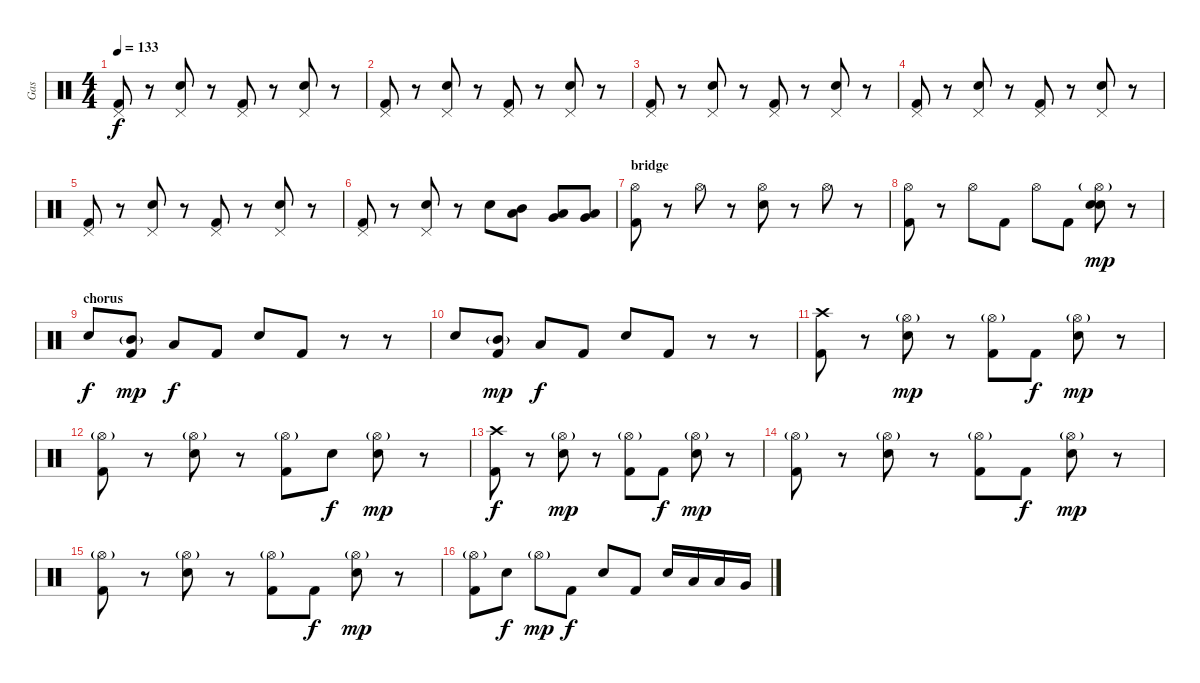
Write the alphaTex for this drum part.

\track ("Gas" "Gas") {instrument percussion}
\staff {score}
\articulation defaults
\ts (4 4)
\tempo 133
\clef neutral
\ks c
("Pedal Hi-Hat (hit)" "Kick (hit) 2").8{dy f} r.8 ("Pedal Hi-Hat (hit)" "Electric Snare (hit)").8 r.8 ("Pedal Hi-Hat (hit)" "Kick (hit) 2").8 r.8 ("Pedal Hi-Hat (hit)" "Electric Snare (hit)").8 r.8 |
("Pedal Hi-Hat (hit)" "Kick (hit) 2").8 r.8 ("Pedal Hi-Hat (hit)" "Electric Snare (hit)").8 r.8 ("Pedal Hi-Hat (hit)" "Kick (hit) 2").8 r.8 ("Pedal Hi-Hat (hit)" "Electric Snare (hit)").8 r.8 |
("Pedal Hi-Hat (hit)" "Kick (hit) 2").8 r.8 ("Pedal Hi-Hat (hit)" "Electric Snare (hit)").8 r.8 ("Pedal Hi-Hat (hit)" "Kick (hit) 2").8 r.8 ("Pedal Hi-Hat (hit)" "Electric Snare (hit)").8 r.8 |
("Pedal Hi-Hat (hit)" "Kick (hit) 2").8 r.8 ("Pedal Hi-Hat (hit)" "Electric Snare (hit)").8 r.8 ("Pedal Hi-Hat (hit)" "Kick (hit) 2").8 r.8 ("Pedal Hi-Hat (hit)" "Electric Snare (hit)").8 r.8 |
("Pedal Hi-Hat (hit)" "Kick (hit) 2").8 r.8 ("Pedal Hi-Hat (hit)" "Electric Snare (hit)").8 r.8 ("Pedal Hi-Hat (hit)" "Kick (hit) 2").8 r.8 ("Pedal Hi-Hat (hit)" "Electric Snare (hit)").8 r.8 |
("Pedal Hi-Hat (hit)" "Kick (hit) 2").8 r.8 ("Pedal Hi-Hat (hit)" "Electric Snare (hit)").8 r.8 "Electric Snare (hit)".8 ("Low Tom (hit)" "Mid Tom (hit)").8 ("Very Low Tom (hit)" "Low Tom (hit)").8 ("Very Low Tom (hit)" "Low Floor Tom (hit)").8 |
\section ("" "bridge")
("Hi-Hat (open)" "Kick (hit) 2").8 r.8 "Hi-Hat (open)".8 r.8 ("Hi-Hat (open)" "Electric Snare (hit)").8 r.8 "Hi-Hat (open)".8 r.8 |
("Hi-Hat (open)" "Kick (hit) 2").8 r.8 "Hi-Hat (open)".8 "Kick (hit) 2".8 "Hi-Hat (open)".8 "Kick (hit) 2".8 ("Hi-Hat (open)"{g} "Electric Snare (hit)" "Electric Snare (hit)").8{dy mp} r.8 |
\section ("" "chorus")
"Electric Snare (hit)".8{dy f} ("Kick (hit) 2" "Mid Tom (hit)"{g}).8{dy mp} "Low Tom (hit)".8{dy f} "Kick (hit) 2".8 "Electric Snare (hit)".8 "Kick (hit) 2".8 r.8 r.8 |
"Electric Snare (hit)".8 ("Kick (hit) 2" "Mid Tom (hit)"{g}).8{dy mp} "Low Tom (hit)".8{dy f} "Kick (hit) 2".8 "Electric Snare (hit)".8 "Kick (hit) 2".8 r.8 r.8 |
("Crash high (hit)" "Kick (hit) 2").8 r.8 ("Hi-Hat (open)"{g} "Electric Snare (hit)").8{dy mp} r.8 ("Hi-Hat (open)"{g} "Kick (hit) 2").8 "Kick (hit) 2".8{dy f} ("Hi-Hat (open)"{g} "Electric Snare (hit)").8{dy mp} r.8 |
("Hi-Hat (open)"{g} "Kick (hit) 2").8 r.8 ("Hi-Hat (open)"{g} "Electric Snare (hit)").8 r.8 ("Hi-Hat (open)"{g} "Kick (hit) 2").8 "Electric Snare (hit)".8{dy f} ("Hi-Hat (open)"{g} "Electric Snare (hit)").8{dy mp} r.8 |
("Crash high (hit)" "Kick (hit) 2").8{dy f} r.8 ("Hi-Hat (open)"{g} "Electric Snare (hit)").8{dy mp} r.8 ("Hi-Hat (open)"{g} "Kick (hit) 2").8 "Kick (hit) 2".8{dy f} ("Hi-Hat (open)"{g} "Electric Snare (hit)").8{dy mp} r.8 |
("Hi-Hat (open)"{g} "Kick (hit) 2").8 r.8 ("Hi-Hat (open)"{g} "Electric Snare (hit)").8 r.8 ("Hi-Hat (open)"{g} "Kick (hit) 2").8 "Kick (hit) 2".8{dy f} ("Hi-Hat (open)"{g} "Electric Snare (hit)").8{dy mp} r.8 |
("Hi-Hat (open)"{g} "Kick (hit) 2").8 r.8 ("Hi-Hat (open)"{g} "Electric Snare (hit)").8 r.8 ("Hi-Hat (open)"{g} "Kick (hit) 2").8 "Kick (hit) 2".8{dy f} ("Hi-Hat (open)"{g} "Electric Snare (hit)").8{dy mp} r.8 |
("Hi-Hat (open)"{g} "Kick (hit) 2").8 "Electric Snare (hit)".8{dy f} "Hi-Hat (open)"{g}.8{dy mp} "Kick (hit) 2".8{dy f} "Electric Snare (hit)".8 "Kick (hit) 2".8 "Electric Snare (hit)".16 "Low Tom (hit)".16 "Low Tom (hit)".16 "Very Low Tom (hit)".16
